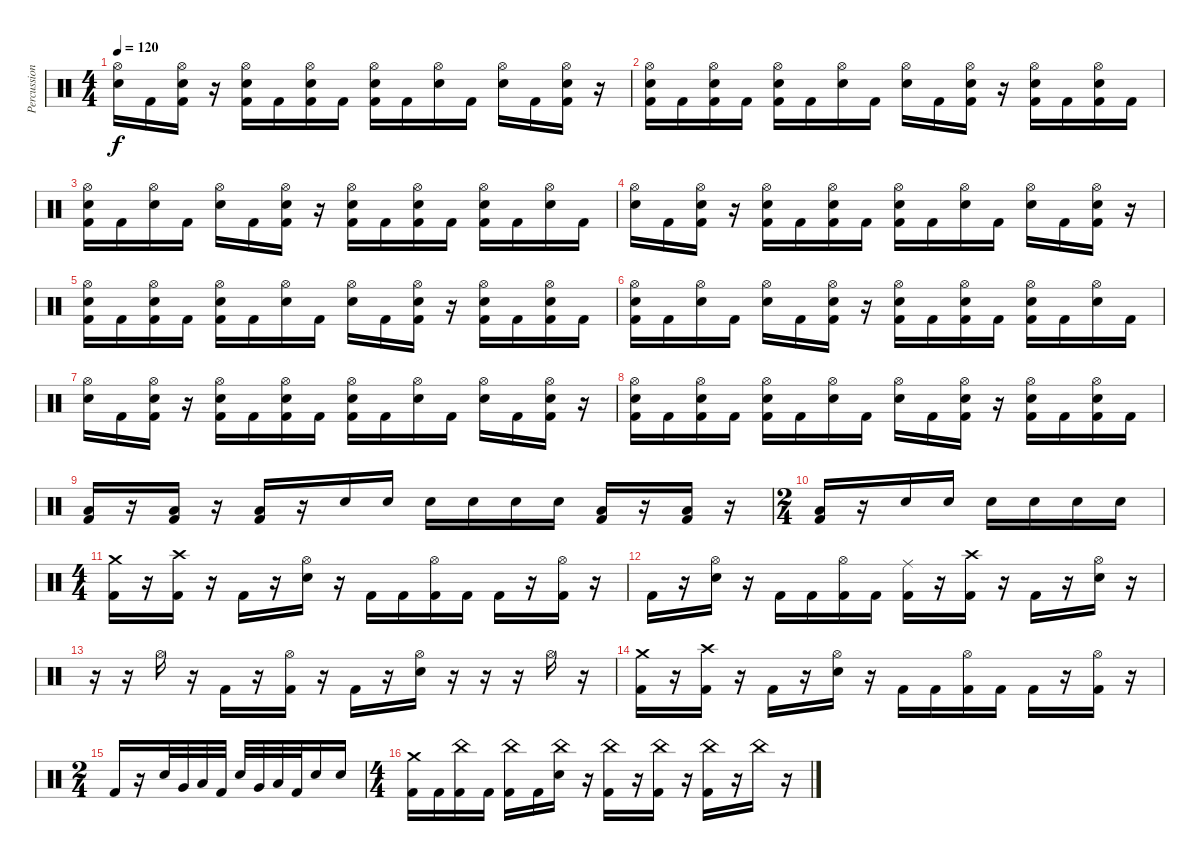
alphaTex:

\track ("Percussion" "Percussion") {instrument percussion}
\staff {score}
\articulation defaults
\ts (4 4)
\tempo 120
\clef neutral
\ks c
("Hi-Hat (open)" "Electric Snare (hit)").16{dy f} "Kick (hit) 2".16 ("Hi-Hat (open)" "Electric Snare (hit)" "Kick (hit) 2").16 r.16 ("Hi-Hat (open)" "Electric Snare (hit)" "Kick (hit) 2").16 "Kick (hit) 2".16 ("Hi-Hat (open)" "Electric Snare (hit)" "Kick (hit) 2").16 "Kick (hit) 2".16 ("Hi-Hat (open)" "Electric Snare (hit)" "Kick (hit) 2").16 "Kick (hit) 2".16 ("Hi-Hat (open)" "Electric Snare (hit)").16 "Kick (hit) 2".16 ("Hi-Hat (open)" "Electric Snare (hit)").16 "Kick (hit) 2".16 ("Hi-Hat (open)" "Electric Snare (hit)" "Kick (hit) 2").16 r.16 |
("Hi-Hat (open)" "Electric Snare (hit)" "Kick (hit) 2").16 "Kick (hit) 2".16 ("Hi-Hat (open)" "Electric Snare (hit)" "Kick (hit) 2").16 "Kick (hit) 2".16 ("Hi-Hat (open)" "Electric Snare (hit)" "Kick (hit) 2").16 "Kick (hit) 2".16 ("Hi-Hat (open)" "Electric Snare (hit)").16 "Kick (hit) 2".16 ("Hi-Hat (open)" "Electric Snare (hit)").16 "Kick (hit) 2".16 ("Hi-Hat (open)" "Electric Snare (hit)" "Kick (hit) 2").16 r.16 ("Hi-Hat (open)" "Electric Snare (hit)" "Kick (hit) 2").16 "Kick (hit) 2".16 ("Hi-Hat (open)" "Electric Snare (hit)" "Kick (hit) 2").16 "Kick (hit) 2".16 |
("Hi-Hat (open)" "Electric Snare (hit)" "Kick (hit) 2").16 "Kick (hit) 2".16 ("Hi-Hat (open)" "Electric Snare (hit)").16 "Kick (hit) 2".16 ("Hi-Hat (open)" "Electric Snare (hit)").16 "Kick (hit) 2".16 ("Hi-Hat (open)" "Electric Snare (hit)" "Kick (hit) 2").16 r.16 ("Hi-Hat (open)" "Electric Snare (hit)" "Kick (hit) 2").16 "Kick (hit) 2".16 ("Hi-Hat (open)" "Electric Snare (hit)" "Kick (hit) 2").16 "Kick (hit) 2".16 ("Hi-Hat (open)" "Electric Snare (hit)" "Kick (hit) 2").16 "Kick (hit) 2".16 ("Hi-Hat (open)" "Electric Snare (hit)").16 "Kick (hit) 2".16 |
("Hi-Hat (open)" "Electric Snare (hit)").16 "Kick (hit) 2".16 ("Hi-Hat (open)" "Electric Snare (hit)" "Kick (hit) 2").16 r.16 ("Hi-Hat (open)" "Electric Snare (hit)" "Kick (hit) 2").16 "Kick (hit) 2".16 ("Hi-Hat (open)" "Electric Snare (hit)" "Kick (hit) 2").16 "Kick (hit) 2".16 ("Hi-Hat (open)" "Electric Snare (hit)" "Kick (hit) 2").16 "Kick (hit) 2".16 ("Hi-Hat (open)" "Electric Snare (hit)").16 "Kick (hit) 2".16 ("Hi-Hat (open)" "Electric Snare (hit)").16 "Kick (hit) 2".16 ("Hi-Hat (open)" "Electric Snare (hit)" "Kick (hit) 2").16 r.16 |
("Hi-Hat (open)" "Electric Snare (hit)" "Kick (hit) 2").16 "Kick (hit) 2".16 ("Hi-Hat (open)" "Electric Snare (hit)" "Kick (hit) 2").16 "Kick (hit) 2".16 ("Hi-Hat (open)" "Electric Snare (hit)" "Kick (hit) 2").16 "Kick (hit) 2".16 ("Hi-Hat (open)" "Electric Snare (hit)").16 "Kick (hit) 2".16 ("Hi-Hat (open)" "Electric Snare (hit)").16 "Kick (hit) 2".16 ("Hi-Hat (open)" "Electric Snare (hit)" "Kick (hit) 2").16 r.16 ("Hi-Hat (open)" "Electric Snare (hit)" "Kick (hit) 2").16 "Kick (hit) 2".16 ("Hi-Hat (open)" "Electric Snare (hit)" "Kick (hit) 2").16 "Kick (hit) 2".16 |
("Hi-Hat (open)" "Electric Snare (hit)" "Kick (hit) 2").16 "Kick (hit) 2".16 ("Hi-Hat (open)" "Electric Snare (hit)").16 "Kick (hit) 2".16 ("Hi-Hat (open)" "Electric Snare (hit)").16 "Kick (hit) 2".16 ("Hi-Hat (open)" "Electric Snare (hit)" "Kick (hit) 2").16 r.16 ("Hi-Hat (open)" "Electric Snare (hit)" "Kick (hit) 2").16 "Kick (hit) 2".16 ("Hi-Hat (open)" "Electric Snare (hit)" "Kick (hit) 2").16 "Kick (hit) 2".16 ("Hi-Hat (open)" "Electric Snare (hit)" "Kick (hit) 2").16 "Kick (hit) 2".16 ("Hi-Hat (open)" "Electric Snare (hit)").16 "Kick (hit) 2".16 |
("Hi-Hat (open)" "Electric Snare (hit)").16 "Kick (hit) 2".16 ("Hi-Hat (open)" "Electric Snare (hit)" "Kick (hit) 2").16 r.16 ("Hi-Hat (open)" "Electric Snare (hit)" "Kick (hit) 2").16 "Kick (hit) 2".16 ("Hi-Hat (open)" "Electric Snare (hit)" "Kick (hit) 2").16 "Kick (hit) 2".16 ("Hi-Hat (open)" "Electric Snare (hit)" "Kick (hit) 2").16 "Kick (hit) 2".16 ("Hi-Hat (open)" "Electric Snare (hit)").16 "Kick (hit) 2".16 ("Hi-Hat (open)" "Electric Snare (hit)").16 "Kick (hit) 2".16 ("Hi-Hat (open)" "Electric Snare (hit)" "Kick (hit) 2").16 r.16 |
("Hi-Hat (open)" "Electric Snare (hit)" "Kick (hit) 2").16 "Kick (hit) 2".16 ("Hi-Hat (open)" "Electric Snare (hit)" "Kick (hit) 2").16 "Kick (hit) 2".16 ("Hi-Hat (open)" "Electric Snare (hit)" "Kick (hit) 2").16 "Kick (hit) 2".16 ("Hi-Hat (open)" "Electric Snare (hit)").16 "Kick (hit) 2".16 ("Hi-Hat (open)" "Electric Snare (hit)").16 "Kick (hit) 2".16 ("Hi-Hat (open)" "Electric Snare (hit)" "Kick (hit) 2").16 r.16 ("Hi-Hat (open)" "Electric Snare (hit)" "Kick (hit) 2").16 "Kick (hit) 2".16 ("Hi-Hat (open)" "Electric Snare (hit)" "Kick (hit) 2").16 "Kick (hit) 2".16 |
("Low Floor Tom (hit)" "Kick (hit) 2").16 r.16 ("Low Floor Tom (hit)" "Kick (hit) 2").16 r.16 ("Low Floor Tom (hit)" "Kick (hit) 2").16 r.16 "Electric Snare (hit)".16 "Electric Snare (hit)".16 "Electric Snare (hit)".16 "Electric Snare (hit)".16 "Electric Snare (hit)".16 "Electric Snare (hit)".16 ("Low Floor Tom (hit)" "Kick (hit) 2").16 r.16 ("Low Floor Tom (hit)" "Kick (hit) 2").16 r.16 |
\ts (2 4)
("Low Floor Tom (hit)" "Kick (hit) 2").16 r.16 "Electric Snare (hit)".16 "Electric Snare (hit)".16 "Electric Snare (hit)".16 "Electric Snare (hit)".16 "Electric Snare (hit)".16 "Electric Snare (hit)".16 |
\ts (4 4)
("Crash medium (hit)" "Kick (hit) 2").16 r.16 ("Crash high (hit)" "Kick (hit) 2").16 r.16 "Kick (hit) 2".16 r.16 ("Hi-Hat (open)" "Electric Snare (hit)").16 r.16 "Kick (hit) 2".16 "Kick (hit) 2".16 ("Hi-Hat (open)" "Kick (hit) 2").16 "Kick (hit) 2".16 "Kick (hit) 2".16 r.16 ("Hi-Hat (open)" "Kick (hit) 2").16 r.16 |
"Kick (hit) 2".16 r.16 ("Hi-Hat (open)" "Electric Snare (hit)").16 r.16 "Kick (hit) 2".16 "Kick (hit) 2".16 ("Hi-Hat (open)" "Kick (hit) 2").16 "Kick (hit) 2".16 ("Ride (middle)" "Kick (hit) 2").16 r.16 ("Crash high (hit)" "Kick (hit) 2").16 r.16 "Kick (hit) 2".16 r.16 ("Hi-Hat (open)" "Electric Snare (hit)").16 r.16 |
r.16 r.16 "Hi-Hat (open)".16 r.16 "Kick (hit) 2".16 r.16 ("Hi-Hat (open)" "Kick (hit) 2").16 r.16 "Kick (hit) 2".16 r.16 ("Hi-Hat (open)" "Electric Snare (hit)").16 r.16 r.16 r.16 "Hi-Hat (open)".16 r.16 |
("Crash medium (hit)" "Kick (hit) 2").16 r.16 ("Crash high (hit)" "Kick (hit) 2").16 r.16 "Kick (hit) 2".16 r.16 ("Hi-Hat (open)" "Electric Snare (hit)").16 r.16 "Kick (hit) 2".16 "Kick (hit) 2".16 ("Hi-Hat (open)" "Kick (hit) 2").16 "Kick (hit) 2".16 "Kick (hit) 2".16 r.16 ("Hi-Hat (open)" "Kick (hit) 2").16 r.16 |
\ts (2 4)
"Kick (hit) 2".16 r.16 "Electric Snare (hit)".32 "Very Low Tom (hit)".32 "Low Floor Tom (hit)".32 "Kick (hit) 2".32 "Electric Snare (hit)".32 "Very Low Tom (hit)".32 "Low Floor Tom (hit)".32 "Kick (hit) 2".32 "Electric Snare (hit)".16 "Electric Snare (hit)".16 |
\ts (4 4)
("Crash medium (hit)" "Kick (hit) 2").16 "Kick (hit) 2".16 ("China (hit)" "Kick (hit) 2").16 "Kick (hit) 2".16 ("China (hit)" "Kick (hit) 2").16 "Kick (hit) 2".16 ("China (hit)" "Electric Snare (hit)").16 r.16 ("China (hit)" "Kick (hit) 2").16 r.16 ("China (hit)" "Kick (hit) 2").16 r.16 ("China (hit)" "Kick (hit) 2").16 r.16 "China (hit)".16 r.16
